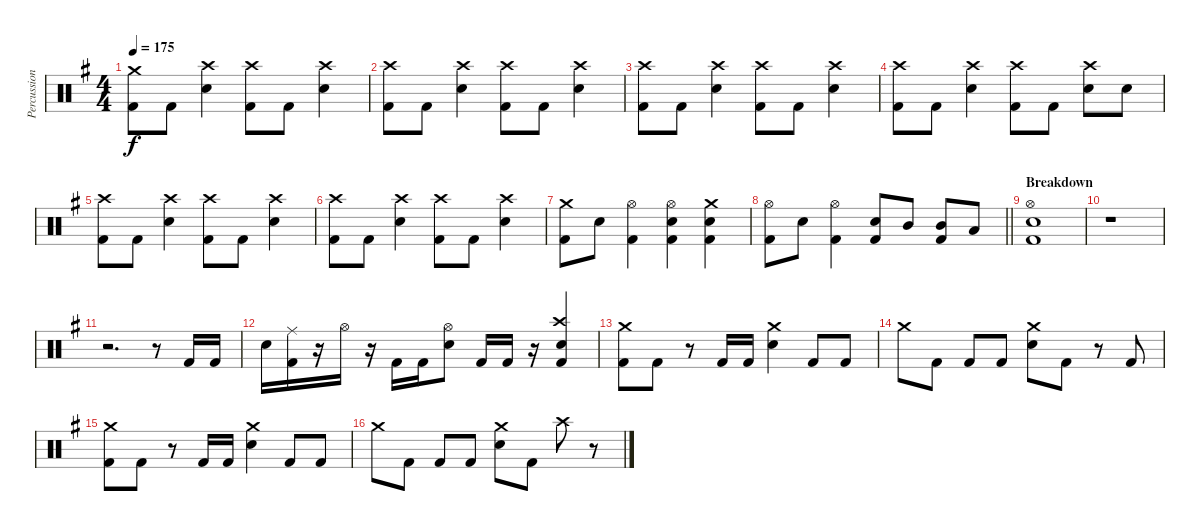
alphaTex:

\track ("Percussion" "Percussion") {instrument percussion}
\staff {score}
\articulation defaults
\ts (4 4)
\tempo 175
\clef neutral
\ks g
("Crash medium (hit)" "Kick (hit) 2").8{dy f} "Kick (hit) 2".8 ("Crash high (hit)" "Snare (hit) 2").4 ("Crash high (hit)" "Kick (hit) 2").8 "Kick (hit) 2".8 ("Crash high (hit)" "Snare (hit) 2").4 |
("Crash high (hit)" "Kick (hit) 2").8 "Kick (hit) 2".8 ("Crash high (hit)" "Snare (hit) 2").4 ("Crash high (hit)" "Kick (hit) 2").8 "Kick (hit) 2".8 ("Crash high (hit)" "Snare (hit) 2").4 |
("Crash high (hit)" "Kick (hit) 2").8 "Kick (hit) 2".8 ("Crash high (hit)" "Snare (hit) 2").4 ("Crash high (hit)" "Kick (hit) 2").8 "Kick (hit) 2".8 ("Crash high (hit)" "Snare (hit) 2").4 |
("Crash high (hit)" "Kick (hit) 2").8 "Kick (hit) 2".8 ("Crash high (hit)" "Snare (hit) 2").4 ("Crash high (hit)" "Kick (hit) 2").8 "Kick (hit) 2".8 ("Crash high (hit)" "Snare (hit) 2").8 "Snare (hit) 2".8 |
("Crash high (hit)" "Kick (hit) 2").8 "Kick (hit) 2".8 ("Crash high (hit)" "Snare (hit) 2").4 ("Crash high (hit)" "Kick (hit) 2").8 "Kick (hit) 2".8 ("Crash high (hit)" "Snare (hit) 2").4 |
("Crash high (hit)" "Kick (hit) 2").8 "Kick (hit) 2".8 ("Crash high (hit)" "Snare (hit) 2").4 ("Crash high (hit)" "Kick (hit) 2").8 "Kick (hit) 2".8 ("Crash high (hit)" "Snare (hit) 2").4 |
("Crash medium (hit)" "Kick (hit) 2").8 "Snare (hit) 2".8 ("Hi-Hat (open)" "Kick (hit) 2").4 ("Hi-Hat (open)" "Snare (hit) 2" "Kick (hit) 2").4 ("Crash medium (hit)" "Snare (hit) 2" "Kick (hit) 2").4 |
\barLineRight lightlight
("Hi-Hat (open)" "Kick (hit) 2").8 "Snare (hit) 2".8 ("Hi-Hat (open)" "Kick (hit) 2").4 ("Snare (hit) 2" "Kick (hit) 2").8 "Mid Tom (hit)".8 ("Mid Tom (hit)" "Kick (hit) 2").8 "Low Floor Tom (hit)".8 |
\section ("" "Breakdown")
("Hi-Hat (open)" "Snare (hit) 2" "Kick (hit) 2").1 |
r.1 |
r.2{d} r.8 "Kick (hit) 2".16 "Kick (hit) 2".16 |
"Snare (hit) 2".16 ("Ride (middle)" "Kick (hit) 2").16 r.16 "Hi-Hat (open)".16 r.16 "Kick (hit) 2".16 "Kick (hit) 2".16 ("Hi-Hat (open)" "Snare (hit) 2").8 "Kick (hit) 2".16 "Kick (hit) 2".16 r.16 ("Crash high (hit)" "Snare (hit) 2" "Kick (hit) 2").4 |
("Crash medium (hit)" "Kick (hit) 2").8 "Kick (hit) 2".8 r.8 "Kick (hit) 2".16 "Kick (hit) 2".16 ("Crash medium (hit)" "Snare (hit) 2").4 "Kick (hit) 2".8 "Kick (hit) 2".8 |
"Crash medium (hit)".8 "Kick (hit) 2".8 "Kick (hit) 2".8 "Kick (hit) 2".8 ("Crash medium (hit)" "Snare (hit) 2").8 "Kick (hit) 2".8 r.8 "Kick (hit) 2".8 |
("Crash medium (hit)" "Kick (hit) 2").8 "Kick (hit) 2".8 r.8 "Kick (hit) 2".16 "Kick (hit) 2".16 ("Crash medium (hit)" "Snare (hit) 2").4 "Kick (hit) 2".8 "Kick (hit) 2".8 |
"Crash medium (hit)".8 "Kick (hit) 2".8 "Kick (hit) 2".8 "Kick (hit) 2".8 ("Crash medium (hit)" "Snare (hit) 2").8 "Kick (hit) 2".8 "Crash high (hit)".8 r.8
